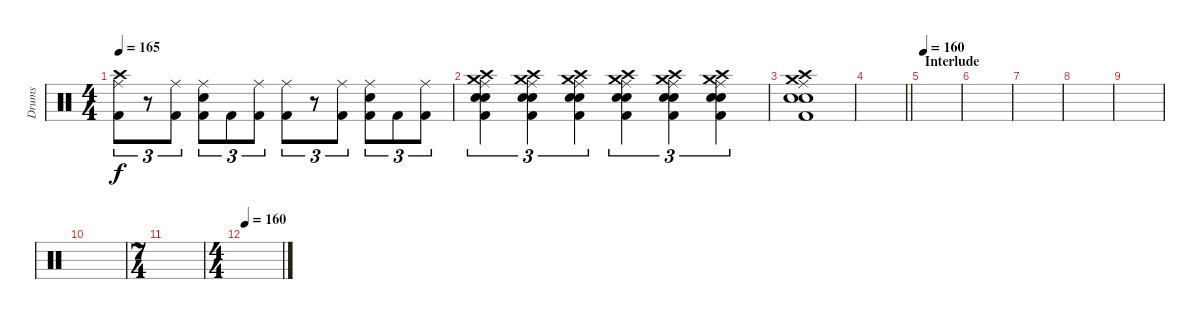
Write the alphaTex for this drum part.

\track ("Drums" "Drums") {instrument percussion}
\staff {score}
\articulation defaults
\ts (4 4)
\tempo 165
\clef neutral
\ks c
("Ride (middle)" "Kick (hit) 2" "Crash high (hit)").8{tu (3 2) dy f} r.8{tu (3 2)} ("Ride (middle)" "Kick (hit) 2").8{tu (3 2)} ("Ride (middle)" "Snare (hit) 2" "Kick (hit) 2").8{tu (3 2)} "Kick (hit) 2".8{tu (3 2)} ("Ride (middle)" "Kick (hit) 2").8{tu (3 2)} ("Ride (middle)" "Kick (hit) 2").8{tu (3 2)} r.8{tu (3 2)} ("Ride (middle)" "Kick (hit) 2").8{tu (3 2)} ("Ride (middle)" "Snare (hit) 2" "Kick (hit) 2").8{tu (3 2)} "Kick (hit) 2".8{tu (3 2)} ("Ride (middle)" "Kick (hit) 2").8{tu (3 2)} |
("Ride (middle)" "Electric Snare (hit)" "Snare (hit) 2" "Kick (hit) 2" "Crash medium (hit)" "Crash high (hit)").4{tu (3 2)} ("Ride (middle)" "Electric Snare (hit)" "Snare (hit) 2" "Kick (hit) 2" "Crash medium (hit)" "Crash high (hit)").4{tu (3 2)} ("Ride (middle)" "Electric Snare (hit)" "Snare (hit) 2" "Kick (hit) 2" "Crash medium (hit)" "Crash high (hit)").4{tu (3 2)} ("Ride (middle)" "Electric Snare (hit)" "Snare (hit) 2" "Kick (hit) 2" "Crash medium (hit)" "Crash high (hit)").4{tu (3 2)} ("Ride (middle)" "Electric Snare (hit)" "Snare (hit) 2" "Kick (hit) 2" "Crash medium (hit)" "Crash high (hit)").4{tu (3 2)} ("Ride (middle)" "Electric Snare (hit)" "Snare (hit) 2" "Kick (hit) 2" "Crash medium (hit)" "Crash high (hit)").4{tu (3 2)} |
("Ride (middle)" "Electric Snare (hit)" "Snare (hit) 2" "Kick (hit) 2" "Crash medium (hit)" "Crash high (hit)").1 |
\barLineRight lightlight
|
\section ("" "Interlude")
\tempo 160
|
|
|
|
|
|
\ts (7 4)
|
\ts (4 4)
\tempo 160
